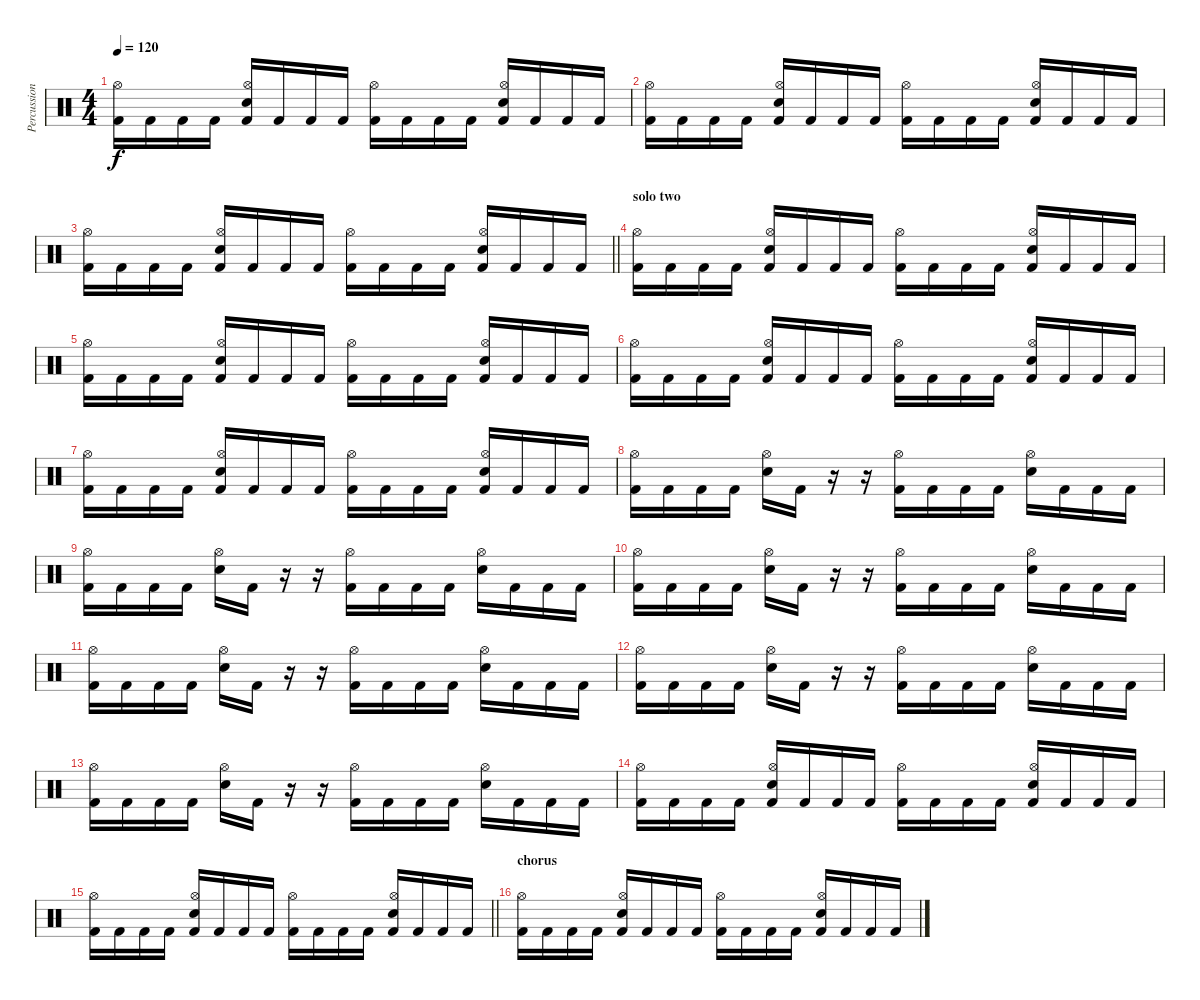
\track ("Percussion" "Percussion") {instrument percussion}
\staff {score}
\articulation defaults
\ts (4 4)
\tempo 120
\clef neutral
\ks c
("Kick (hit) 2" "Hi-Hat (open)").16{dy f} "Kick (hit) 2".16 "Kick (hit) 2".16 "Kick (hit) 2".16 ("Kick (hit) 2" "Hi-Hat (open)" "Electric Snare (hit)").16 "Kick (hit) 2".16 "Kick (hit) 2".16 "Kick (hit) 2".16 ("Kick (hit) 2" "Hi-Hat (open)").16 "Kick (hit) 2".16 "Kick (hit) 2".16 "Kick (hit) 2".16 ("Kick (hit) 2" "Hi-Hat (open)" "Electric Snare (hit)").16 "Kick (hit) 2".16 "Kick (hit) 2".16 "Kick (hit) 2".16 |
("Kick (hit) 2" "Hi-Hat (open)").16 "Kick (hit) 2".16 "Kick (hit) 2".16 "Kick (hit) 2".16 ("Kick (hit) 2" "Hi-Hat (open)" "Electric Snare (hit)").16 "Kick (hit) 2".16 "Kick (hit) 2".16 "Kick (hit) 2".16 ("Kick (hit) 2" "Hi-Hat (open)").16 "Kick (hit) 2".16 "Kick (hit) 2".16 "Kick (hit) 2".16 ("Kick (hit) 2" "Hi-Hat (open)" "Electric Snare (hit)").16 "Kick (hit) 2".16 "Kick (hit) 2".16 "Kick (hit) 2".16 |
\barLineRight lightlight
("Kick (hit) 2" "Hi-Hat (open)").16 "Kick (hit) 2".16 "Kick (hit) 2".16 "Kick (hit) 2".16 ("Kick (hit) 2" "Hi-Hat (open)" "Electric Snare (hit)").16 "Kick (hit) 2".16 "Kick (hit) 2".16 "Kick (hit) 2".16 ("Kick (hit) 2" "Hi-Hat (open)").16 "Kick (hit) 2".16 "Kick (hit) 2".16 "Kick (hit) 2".16 ("Kick (hit) 2" "Hi-Hat (open)" "Electric Snare (hit)").16 "Kick (hit) 2".16 "Kick (hit) 2".16 "Kick (hit) 2".16 |
\section ("" "solo two")
("Kick (hit) 2" "Hi-Hat (open)").16 "Kick (hit) 2".16 "Kick (hit) 2".16 "Kick (hit) 2".16 ("Kick (hit) 2" "Hi-Hat (open)" "Electric Snare (hit)").16 "Kick (hit) 2".16 "Kick (hit) 2".16 "Kick (hit) 2".16 ("Kick (hit) 2" "Hi-Hat (open)").16 "Kick (hit) 2".16 "Kick (hit) 2".16 "Kick (hit) 2".16 ("Kick (hit) 2" "Hi-Hat (open)" "Electric Snare (hit)").16 "Kick (hit) 2".16 "Kick (hit) 2".16 "Kick (hit) 2".16 |
("Kick (hit) 2" "Hi-Hat (open)").16 "Kick (hit) 2".16 "Kick (hit) 2".16 "Kick (hit) 2".16 ("Kick (hit) 2" "Hi-Hat (open)" "Electric Snare (hit)").16 "Kick (hit) 2".16 "Kick (hit) 2".16 "Kick (hit) 2".16 ("Kick (hit) 2" "Hi-Hat (open)").16 "Kick (hit) 2".16 "Kick (hit) 2".16 "Kick (hit) 2".16 ("Kick (hit) 2" "Hi-Hat (open)" "Electric Snare (hit)").16 "Kick (hit) 2".16 "Kick (hit) 2".16 "Kick (hit) 2".16 |
("Kick (hit) 2" "Hi-Hat (open)").16 "Kick (hit) 2".16 "Kick (hit) 2".16 "Kick (hit) 2".16 ("Kick (hit) 2" "Hi-Hat (open)" "Electric Snare (hit)").16 "Kick (hit) 2".16 "Kick (hit) 2".16 "Kick (hit) 2".16 ("Kick (hit) 2" "Hi-Hat (open)").16 "Kick (hit) 2".16 "Kick (hit) 2".16 "Kick (hit) 2".16 ("Kick (hit) 2" "Hi-Hat (open)" "Electric Snare (hit)").16 "Kick (hit) 2".16 "Kick (hit) 2".16 "Kick (hit) 2".16 |
("Kick (hit) 2" "Hi-Hat (open)").16 "Kick (hit) 2".16 "Kick (hit) 2".16 "Kick (hit) 2".16 ("Kick (hit) 2" "Hi-Hat (open)" "Electric Snare (hit)").16 "Kick (hit) 2".16 "Kick (hit) 2".16 "Kick (hit) 2".16 ("Kick (hit) 2" "Hi-Hat (open)").16 "Kick (hit) 2".16 "Kick (hit) 2".16 "Kick (hit) 2".16 ("Kick (hit) 2" "Hi-Hat (open)" "Electric Snare (hit)").16 "Kick (hit) 2".16 "Kick (hit) 2".16 "Kick (hit) 2".16 |
("Kick (hit) 2" "Hi-Hat (open)").16 "Kick (hit) 2".16 "Kick (hit) 2".16 "Kick (hit) 2".16 ("Electric Snare (hit)" "Hi-Hat (open)").16 "Kick (hit) 2".16 r.16 r.16 ("Kick (hit) 2" "Hi-Hat (open)").16 "Kick (hit) 2".16 "Kick (hit) 2".16 "Kick (hit) 2".16 ("Electric Snare (hit)" "Hi-Hat (open)").16 "Kick (hit) 2".16 "Kick (hit) 2".16 "Kick (hit) 2".16 |
("Kick (hit) 2" "Hi-Hat (open)").16 "Kick (hit) 2".16 "Kick (hit) 2".16 "Kick (hit) 2".16 ("Electric Snare (hit)" "Hi-Hat (open)").16 "Kick (hit) 2".16 r.16 r.16 ("Kick (hit) 2" "Hi-Hat (open)").16 "Kick (hit) 2".16 "Kick (hit) 2".16 "Kick (hit) 2".16 ("Electric Snare (hit)" "Hi-Hat (open)").16 "Kick (hit) 2".16 "Kick (hit) 2".16 "Kick (hit) 2".16 |
("Kick (hit) 2" "Hi-Hat (open)").16 "Kick (hit) 2".16 "Kick (hit) 2".16 "Kick (hit) 2".16 ("Electric Snare (hit)" "Hi-Hat (open)").16 "Kick (hit) 2".16 r.16 r.16 ("Kick (hit) 2" "Hi-Hat (open)").16 "Kick (hit) 2".16 "Kick (hit) 2".16 "Kick (hit) 2".16 ("Electric Snare (hit)" "Hi-Hat (open)").16 "Kick (hit) 2".16 "Kick (hit) 2".16 "Kick (hit) 2".16 |
("Kick (hit) 2" "Hi-Hat (open)").16 "Kick (hit) 2".16 "Kick (hit) 2".16 "Kick (hit) 2".16 ("Electric Snare (hit)" "Hi-Hat (open)").16 "Kick (hit) 2".16 r.16 r.16 ("Kick (hit) 2" "Hi-Hat (open)").16 "Kick (hit) 2".16 "Kick (hit) 2".16 "Kick (hit) 2".16 ("Electric Snare (hit)" "Hi-Hat (open)").16 "Kick (hit) 2".16 "Kick (hit) 2".16 "Kick (hit) 2".16 |
("Kick (hit) 2" "Hi-Hat (open)").16 "Kick (hit) 2".16 "Kick (hit) 2".16 "Kick (hit) 2".16 ("Electric Snare (hit)" "Hi-Hat (open)").16 "Kick (hit) 2".16 r.16 r.16 ("Kick (hit) 2" "Hi-Hat (open)").16 "Kick (hit) 2".16 "Kick (hit) 2".16 "Kick (hit) 2".16 ("Electric Snare (hit)" "Hi-Hat (open)").16 "Kick (hit) 2".16 "Kick (hit) 2".16 "Kick (hit) 2".16 |
("Kick (hit) 2" "Hi-Hat (open)").16 "Kick (hit) 2".16 "Kick (hit) 2".16 "Kick (hit) 2".16 ("Electric Snare (hit)" "Hi-Hat (open)").16 "Kick (hit) 2".16 r.16 r.16 ("Kick (hit) 2" "Hi-Hat (open)").16 "Kick (hit) 2".16 "Kick (hit) 2".16 "Kick (hit) 2".16 ("Electric Snare (hit)" "Hi-Hat (open)").16 "Kick (hit) 2".16 "Kick (hit) 2".16 "Kick (hit) 2".16 |
("Kick (hit) 2" "Hi-Hat (open)").16 "Kick (hit) 2".16 "Kick (hit) 2".16 "Kick (hit) 2".16 ("Kick (hit) 2" "Hi-Hat (open)" "Electric Snare (hit)").16 "Kick (hit) 2".16 "Kick (hit) 2".16 "Kick (hit) 2".16 ("Kick (hit) 2" "Hi-Hat (open)").16 "Kick (hit) 2".16 "Kick (hit) 2".16 "Kick (hit) 2".16 ("Kick (hit) 2" "Hi-Hat (open)" "Electric Snare (hit)").16 "Kick (hit) 2".16 "Kick (hit) 2".16 "Kick (hit) 2".16 |
\barLineRight lightlight
("Kick (hit) 2" "Hi-Hat (open)").16 "Kick (hit) 2".16 "Kick (hit) 2".16 "Kick (hit) 2".16 ("Kick (hit) 2" "Hi-Hat (open)" "Electric Snare (hit)").16 "Kick (hit) 2".16 "Kick (hit) 2".16 "Kick (hit) 2".16 ("Kick (hit) 2" "Hi-Hat (open)").16 "Kick (hit) 2".16 "Kick (hit) 2".16 "Kick (hit) 2".16 ("Kick (hit) 2" "Hi-Hat (open)" "Electric Snare (hit)").16 "Kick (hit) 2".16 "Kick (hit) 2".16 "Kick (hit) 2".16 |
\section ("" "chorus")
("Kick (hit) 2" "Hi-Hat (open)").16 "Kick (hit) 2".16 "Kick (hit) 2".16 "Kick (hit) 2".16 ("Kick (hit) 2" "Hi-Hat (open)" "Electric Snare (hit)").16 "Kick (hit) 2".16 "Kick (hit) 2".16 "Kick (hit) 2".16 ("Kick (hit) 2" "Hi-Hat (open)").16 "Kick (hit) 2".16 "Kick (hit) 2".16 "Kick (hit) 2".16 ("Kick (hit) 2" "Hi-Hat (open)" "Electric Snare (hit)").16 "Kick (hit) 2".16 "Kick (hit) 2".16 "Kick (hit) 2".16
